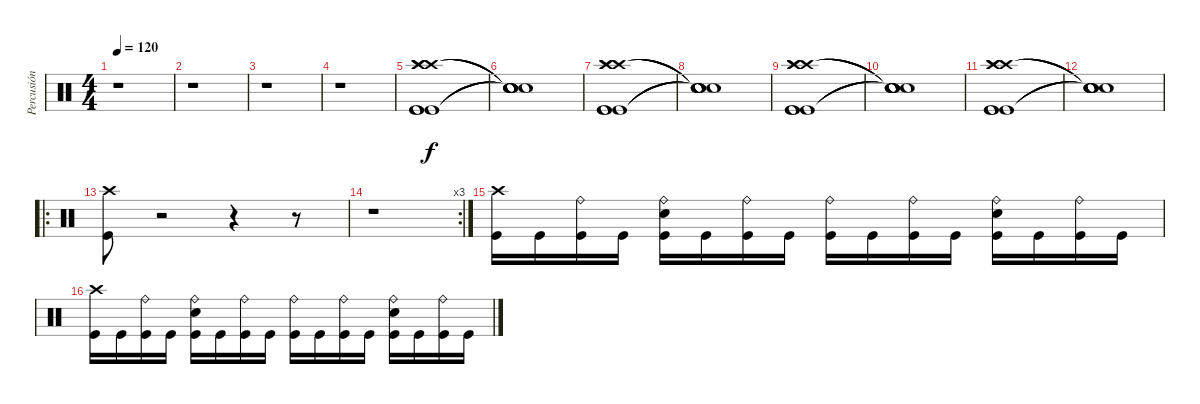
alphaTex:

\track ("Percusión" "Percusión") {instrument percussion}
\staff {score}
\articulation defaults
\ts (4 4)
\tempo 120
\clef neutral
\ks c
r.1{dy f} |
r.1 |
r.1 |
r.1 |
("Crash high (hit)" "Kick (hit)" "Crash high (hit)" "Kick (hit)" "Crash high (hit)" "Kick (hit)").1 |
("Snare (hit)"{t} "Snare (hit)"{t} "Snare (hit)"{t} "Snare (hit)"{t} "Snare (hit)"{t} "Snare (hit)"{t}).1 |
("Crash high (hit)" "Kick (hit)" "Crash high (hit)" "Kick (hit)" "Crash high (hit)" "Kick (hit)").1 |
("Snare (hit)"{t} "Snare (hit)"{t} "Snare (hit)"{t} "Snare (hit)"{t} "Snare (hit)"{t} "Snare (hit)"{t}).1 |
("Crash high (hit)" "Kick (hit)" "Crash high (hit)" "Kick (hit)" "Crash high (hit)" "Kick (hit)").1 |
("Snare (hit)"{t} "Snare (hit)"{t} "Snare (hit)"{t} "Snare (hit)"{t} "Snare (hit)"{t} "Snare (hit)"{t}).1 |
("Crash high (hit)" "Kick (hit)" "Crash high (hit)" "Kick (hit)" "Crash high (hit)" "Kick (hit)").1 |
("Snare (hit)"{t} "Snare (hit)"{t} "Snare (hit)"{t} "Snare (hit)"{t} "Snare (hit)"{t} "Snare (hit)"{t}).1 |
\ro
("Crash high (hit)" "Kick (hit)").8 r.2 r.4 r.8 |
\rc 3
r.1 |
("Crash high (hit)" "Kick (hit)").16 "Kick (hit)".16 ("Ride (bell)" "Kick (hit)").16 "Kick (hit)".16 ("Snare (hit) 2" "Ride (bell)" "Kick (hit)").16 "Kick (hit)".16 ("Ride (bell)" "Kick (hit)").16 "Kick (hit)".16 ("Ride (bell)" "Kick (hit)").16 "Kick (hit)".16 ("Ride (bell)" "Kick (hit)").16 "Kick (hit)".16 ("Snare (hit) 2" "Ride (bell)" "Kick (hit)").16 "Kick (hit)".16 ("Ride (bell)" "Kick (hit)").16 "Kick (hit)".16 |
("Crash high (hit)" "Kick (hit)").16 "Kick (hit)".16 ("Ride (bell)" "Kick (hit)").16 "Kick (hit)".16 ("Snare (hit) 2" "Ride (bell)" "Kick (hit)").16 "Kick (hit)".16 ("Ride (bell)" "Kick (hit)").16 "Kick (hit)".16 ("Ride (bell)" "Kick (hit)").16 "Kick (hit)".16 ("Ride (bell)" "Kick (hit)").16 "Kick (hit)".16 ("Snare (hit) 2" "Ride (bell)" "Kick (hit)").16 "Kick (hit)".16 ("Ride (bell)" "Kick (hit)").16 "Kick (hit)".16
